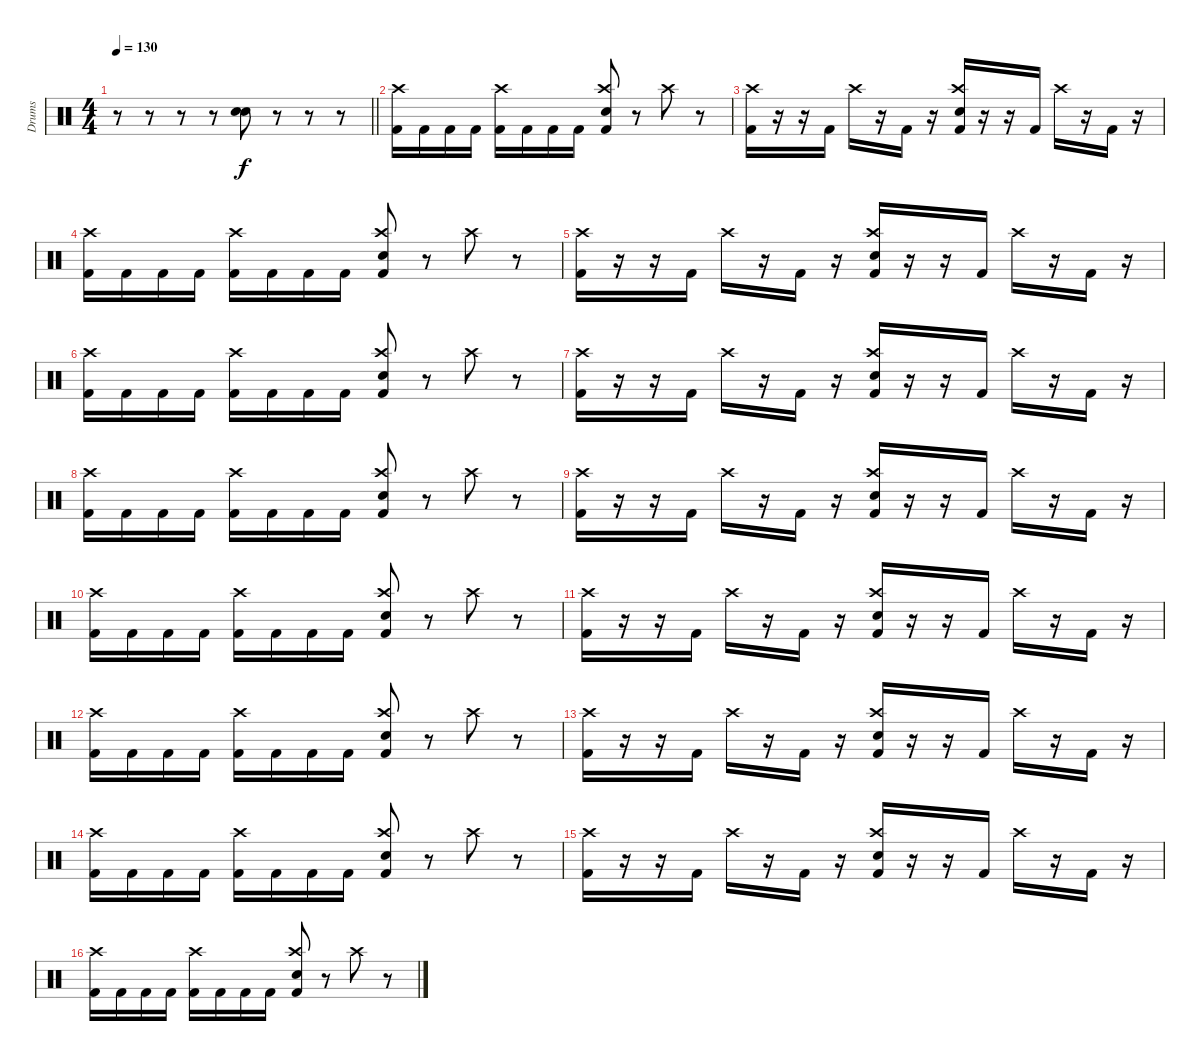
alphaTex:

\track ("Drums" "Drums") {instrument percussion}
\staff {score}
\articulation defaults
\ts (4 4)
\tempo 130
\clef neutral
\barLineRight lightlight
\ks c
r.8{dy f} r.8 r.8 r.8 ("Snare (hit) 2" "Snare (hit) 2").8 r.8 r.8 r.8 |
("Crash high (hit)" "Kick (hit) 2").16 "Kick (hit) 2".16 "Kick (hit) 2".16 "Kick (hit) 2".16 ("Crash high (hit)" "Kick (hit) 2").16 "Kick (hit) 2".16 "Kick (hit) 2".16 "Kick (hit) 2".16 ("Crash high (hit)" "Snare (hit) 2" "Kick (hit) 2").8 r.8 "Crash high (hit)".8 r.8 |
("Crash high (hit)" "Kick (hit) 2").16 r.16 r.16 "Kick (hit) 2".16 "Crash high (hit)".16 r.16 "Kick (hit) 2".16 r.16 ("Crash high (hit)" "Snare (hit) 2" "Kick (hit) 2").16 r.16 r.16 "Kick (hit) 2".16 "Crash high (hit)".16 r.16 "Kick (hit) 2".16 r.16 |
("Crash high (hit)" "Kick (hit) 2").16 "Kick (hit) 2".16 "Kick (hit) 2".16 "Kick (hit) 2".16 ("Crash high (hit)" "Kick (hit) 2").16 "Kick (hit) 2".16 "Kick (hit) 2".16 "Kick (hit) 2".16 ("Crash high (hit)" "Snare (hit) 2" "Kick (hit) 2").8 r.8 "Crash high (hit)".8 r.8 |
("Crash high (hit)" "Kick (hit) 2").16 r.16 r.16 "Kick (hit) 2".16 "Crash high (hit)".16 r.16 "Kick (hit) 2".16 r.16 ("Crash high (hit)" "Snare (hit) 2" "Kick (hit) 2").16 r.16 r.16 "Kick (hit) 2".16 "Crash high (hit)".16 r.16 "Kick (hit) 2".16 r.16 |
("Crash high (hit)" "Kick (hit) 2").16 "Kick (hit) 2".16 "Kick (hit) 2".16 "Kick (hit) 2".16 ("Crash high (hit)" "Kick (hit) 2").16 "Kick (hit) 2".16 "Kick (hit) 2".16 "Kick (hit) 2".16 ("Crash high (hit)" "Snare (hit) 2" "Kick (hit) 2").8 r.8 "Crash high (hit)".8 r.8 |
("Crash high (hit)" "Kick (hit) 2").16 r.16 r.16 "Kick (hit) 2".16 "Crash high (hit)".16 r.16 "Kick (hit) 2".16 r.16 ("Crash high (hit)" "Snare (hit) 2" "Kick (hit) 2").16 r.16 r.16 "Kick (hit) 2".16 "Crash high (hit)".16 r.16 "Kick (hit) 2".16 r.16 |
("Crash high (hit)" "Kick (hit) 2").16 "Kick (hit) 2".16 "Kick (hit) 2".16 "Kick (hit) 2".16 ("Crash high (hit)" "Kick (hit) 2").16 "Kick (hit) 2".16 "Kick (hit) 2".16 "Kick (hit) 2".16 ("Crash high (hit)" "Snare (hit) 2" "Kick (hit) 2").8 r.8 "Crash high (hit)".8 r.8 |
("Crash high (hit)" "Kick (hit) 2").16 r.16 r.16 "Kick (hit) 2".16 "Crash high (hit)".16 r.16 "Kick (hit) 2".16 r.16 ("Crash high (hit)" "Snare (hit) 2" "Kick (hit) 2").16 r.16 r.16 "Kick (hit) 2".16 "Crash high (hit)".16 r.16 "Kick (hit) 2".16 r.16 |
("Crash high (hit)" "Kick (hit) 2").16 "Kick (hit) 2".16 "Kick (hit) 2".16 "Kick (hit) 2".16 ("Crash high (hit)" "Kick (hit) 2").16 "Kick (hit) 2".16 "Kick (hit) 2".16 "Kick (hit) 2".16 ("Crash high (hit)" "Snare (hit) 2" "Kick (hit) 2").8 r.8 "Crash high (hit)".8 r.8 |
("Crash high (hit)" "Kick (hit) 2").16 r.16 r.16 "Kick (hit) 2".16 "Crash high (hit)".16 r.16 "Kick (hit) 2".16 r.16 ("Crash high (hit)" "Snare (hit) 2" "Kick (hit) 2").16 r.16 r.16 "Kick (hit) 2".16 "Crash high (hit)".16 r.16 "Kick (hit) 2".16 r.16 |
("Crash high (hit)" "Kick (hit) 2").16 "Kick (hit) 2".16 "Kick (hit) 2".16 "Kick (hit) 2".16 ("Crash high (hit)" "Kick (hit) 2").16 "Kick (hit) 2".16 "Kick (hit) 2".16 "Kick (hit) 2".16 ("Crash high (hit)" "Snare (hit) 2" "Kick (hit) 2").8 r.8 "Crash high (hit)".8 r.8 |
("Crash high (hit)" "Kick (hit) 2").16 r.16 r.16 "Kick (hit) 2".16 "Crash high (hit)".16 r.16 "Kick (hit) 2".16 r.16 ("Crash high (hit)" "Snare (hit) 2" "Kick (hit) 2").16 r.16 r.16 "Kick (hit) 2".16 "Crash high (hit)".16 r.16 "Kick (hit) 2".16 r.16 |
("Crash high (hit)" "Kick (hit) 2").16 "Kick (hit) 2".16 "Kick (hit) 2".16 "Kick (hit) 2".16 ("Crash high (hit)" "Kick (hit) 2").16 "Kick (hit) 2".16 "Kick (hit) 2".16 "Kick (hit) 2".16 ("Crash high (hit)" "Snare (hit) 2" "Kick (hit) 2").8 r.8 "Crash high (hit)".8 r.8 |
("Crash high (hit)" "Kick (hit) 2").16 r.16 r.16 "Kick (hit) 2".16 "Crash high (hit)".16 r.16 "Kick (hit) 2".16 r.16 ("Crash high (hit)" "Snare (hit) 2" "Kick (hit) 2").16 r.16 r.16 "Kick (hit) 2".16 "Crash high (hit)".16 r.16 "Kick (hit) 2".16 r.16 |
("Crash high (hit)" "Kick (hit) 2").16 "Kick (hit) 2".16 "Kick (hit) 2".16 "Kick (hit) 2".16 ("Crash high (hit)" "Kick (hit) 2").16 "Kick (hit) 2".16 "Kick (hit) 2".16 "Kick (hit) 2".16 ("Crash high (hit)" "Snare (hit) 2" "Kick (hit) 2").8 r.8 "Crash high (hit)".8 r.8
